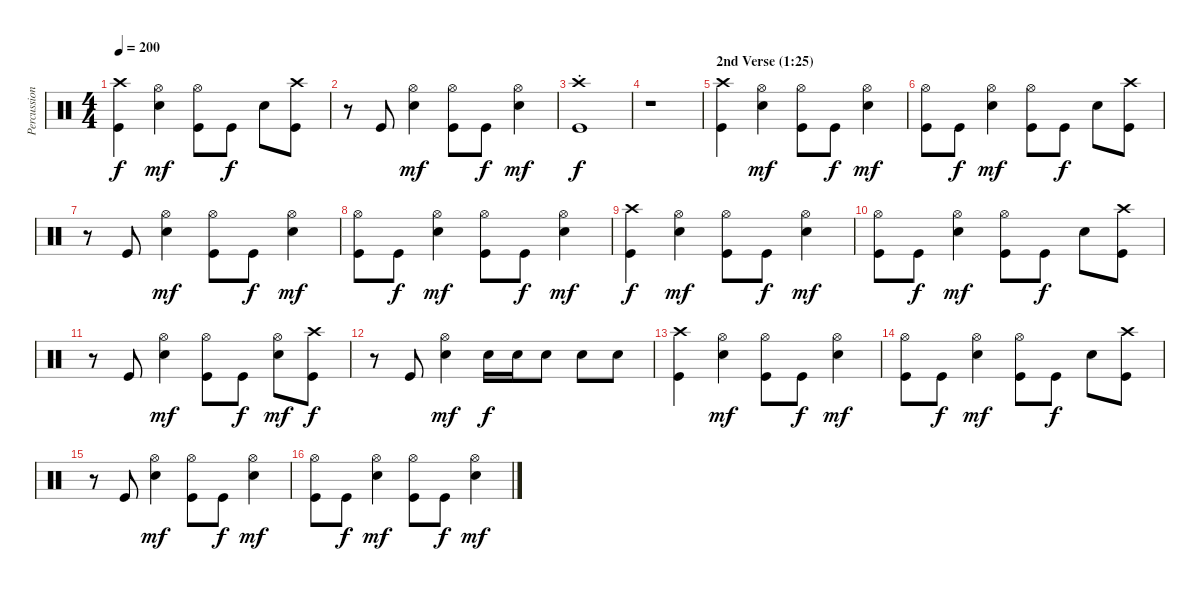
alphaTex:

\track ("Percussion" "Percussion") {instrument percussion}
\staff {score}
\articulation defaults
\ts (4 4)
\tempo 200
\clef neutral
\ks c
("Crash high (hit)" "Kick (hit)").4{dy f} ("Hi-Hat (open)" "Snare (hit) 2").4{dy mf} ("Hi-Hat (open)" "Kick (hit)").8 "Kick (hit)".8{dy f} "Snare (hit) 2".8 ("Crash high (hit)" "Kick (hit)").8 |
r.8 "Kick (hit)".8 ("Hi-Hat (open)" "Snare (hit) 2").4{dy mf} ("Hi-Hat (open)" "Kick (hit)").8 "Kick (hit)".8{dy f} ("Hi-Hat (open)" "Snare (hit) 2").4{dy mf} |
("Crash high (hit)"{st} "Kick (hit)").1{dy f} |
r.1 |
\section ("" "2nd Verse (1:25)")
("Crash high (hit)" "Kick (hit)").4 ("Hi-Hat (open)" "Snare (hit) 2").4{dy mf} ("Hi-Hat (open)" "Kick (hit)").8 "Kick (hit)".8{dy f} ("Hi-Hat (open)" "Snare (hit) 2").4{dy mf} |
("Hi-Hat (open)" "Kick (hit)").8 "Kick (hit)".8{dy f} ("Hi-Hat (open)" "Snare (hit) 2").4{dy mf} ("Hi-Hat (open)" "Kick (hit)").8 "Kick (hit)".8{dy f} "Snare (hit) 2".8 ("Crash high (hit)" "Kick (hit)").8 |
r.8 "Kick (hit)".8 ("Hi-Hat (open)" "Snare (hit) 2").4{dy mf} ("Hi-Hat (open)" "Kick (hit)").8 "Kick (hit)".8{dy f} ("Hi-Hat (open)" "Snare (hit) 2").4{dy mf} |
("Hi-Hat (open)" "Kick (hit)").8 "Kick (hit)".8{dy f} ("Hi-Hat (open)" "Snare (hit) 2").4{dy mf} ("Hi-Hat (open)" "Kick (hit)").8 "Kick (hit)".8{dy f} ("Hi-Hat (open)" "Snare (hit) 2").4{dy mf} |
("Crash high (hit)" "Kick (hit)").4{dy f} ("Hi-Hat (open)" "Snare (hit) 2").4{dy mf} ("Hi-Hat (open)" "Kick (hit)").8 "Kick (hit)".8{dy f} ("Hi-Hat (open)" "Snare (hit) 2").4{dy mf} |
("Hi-Hat (open)" "Kick (hit)").8 "Kick (hit)".8{dy f} ("Hi-Hat (open)" "Snare (hit) 2").4{dy mf} ("Hi-Hat (open)" "Kick (hit)").8 "Kick (hit)".8{dy f} "Snare (hit) 2".8 ("Crash high (hit)" "Kick (hit)").8 |
r.8 "Kick (hit)".8 ("Hi-Hat (open)" "Snare (hit) 2").4{dy mf} ("Hi-Hat (open)" "Kick (hit)").8 "Kick (hit)".8{dy f} ("Hi-Hat (open)" "Snare (hit) 2").8{dy mf} ("Crash high (hit)" "Kick (hit)").8{dy f} |
r.8 "Kick (hit)".8 ("Hi-Hat (open)" "Snare (hit) 2").4{dy mf} "Snare (hit) 2".16{dy f} "Snare (hit) 2".16 "Snare (hit) 2".8 "Snare (hit) 2".8 "Snare (hit) 2".8 |
("Crash high (hit)" "Kick (hit)").4 ("Hi-Hat (open)" "Snare (hit) 2").4{dy mf} ("Hi-Hat (open)" "Kick (hit)").8 "Kick (hit)".8{dy f} ("Hi-Hat (open)" "Snare (hit) 2").4{dy mf} |
("Hi-Hat (open)" "Kick (hit)").8 "Kick (hit)".8{dy f} ("Hi-Hat (open)" "Snare (hit) 2").4{dy mf} ("Hi-Hat (open)" "Kick (hit)").8 "Kick (hit)".8{dy f} "Snare (hit) 2".8 ("Crash high (hit)" "Kick (hit)").8 |
r.8 "Kick (hit)".8 ("Hi-Hat (open)" "Snare (hit) 2").4{dy mf} ("Hi-Hat (open)" "Kick (hit)").8 "Kick (hit)".8{dy f} ("Hi-Hat (open)" "Snare (hit) 2").4{dy mf} |
("Hi-Hat (open)" "Kick (hit)").8 "Kick (hit)".8{dy f} ("Hi-Hat (open)" "Snare (hit) 2").4{dy mf} ("Hi-Hat (open)" "Kick (hit)").8 "Kick (hit)".8{dy f} ("Hi-Hat (open)" "Snare (hit) 2").4{dy mf}
